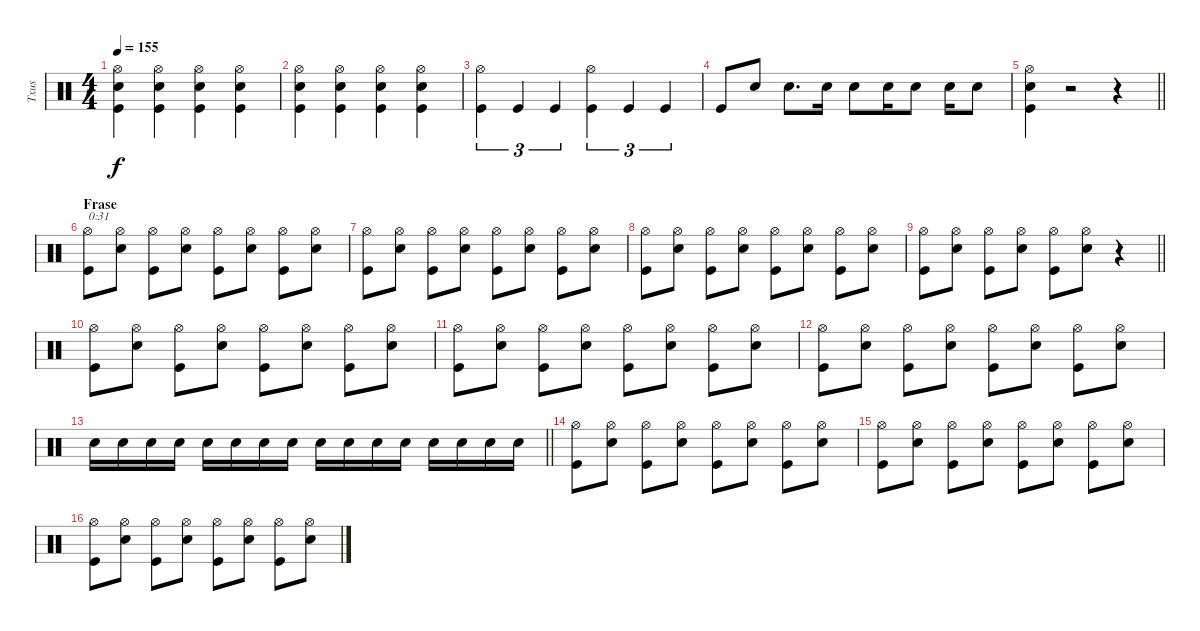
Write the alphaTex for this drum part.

\track ("Txus" "Txus") {instrument percussion}
\staff {score}
\articulation defaults
\ts (4 4)
\tempo 155
\clef neutral
\ks c
("Kick (hit)" "Snare (hit) 2" "Hi-Hat (open)").4{dy f} ("Kick (hit)" "Snare (hit) 2" "Hi-Hat (open)").4 ("Kick (hit)" "Snare (hit) 2" "Hi-Hat (open)").4 ("Kick (hit)" "Snare (hit) 2" "Hi-Hat (open)").4 |
("Kick (hit)" "Snare (hit) 2" "Hi-Hat (open)").4 ("Kick (hit)" "Snare (hit) 2" "Hi-Hat (open)").4 ("Kick (hit)" "Snare (hit) 2" "Hi-Hat (open)").4 ("Kick (hit)" "Snare (hit) 2" "Hi-Hat (open)").4 |
("Kick (hit)" "Hi-Hat (open)").4{tu (3 2)} "Kick (hit)".4{tu (3 2)} "Kick (hit)".4{tu (3 2)} ("Kick (hit)" "Hi-Hat (open)").4{tu (3 2)} "Kick (hit)".4{tu (3 2)} "Kick (hit)".4{tu (3 2)} |
"Kick (hit)".8 "Snare (hit) 2".8 "Snare (hit) 2".8{d} "Snare (hit) 2".16 "Snare (hit) 2".8 "Snare (hit) 2".16 "Snare (hit) 2".8 "Snare (hit) 2".16 "Snare (hit) 2".8 |
\barLineRight lightlight
("Kick (hit)" "Snare (hit) 2" "Hi-Hat (open)").4 r.2 r.4 |
\section ("" "Frase")
("Kick (hit)" "Hi-Hat (open)").8{txt "0:31"} ("Snare (hit) 2" "Hi-Hat (open)").8 ("Kick (hit)" "Hi-Hat (open)").8 ("Snare (hit) 2" "Hi-Hat (open)").8 ("Kick (hit)" "Hi-Hat (open)").8 ("Snare (hit) 2" "Hi-Hat (open)").8 ("Kick (hit)" "Hi-Hat (open)").8 ("Snare (hit) 2" "Hi-Hat (open)").8 |
("Kick (hit)" "Hi-Hat (open)").8 ("Snare (hit) 2" "Hi-Hat (open)").8 ("Kick (hit)" "Hi-Hat (open)").8 ("Snare (hit) 2" "Hi-Hat (open)").8 ("Kick (hit)" "Hi-Hat (open)").8 ("Snare (hit) 2" "Hi-Hat (open)").8 ("Kick (hit)" "Hi-Hat (open)").8 ("Snare (hit) 2" "Hi-Hat (open)").8 |
("Kick (hit)" "Hi-Hat (open)").8 ("Snare (hit) 2" "Hi-Hat (open)").8 ("Kick (hit)" "Hi-Hat (open)").8 ("Snare (hit) 2" "Hi-Hat (open)").8 ("Kick (hit)" "Hi-Hat (open)").8 ("Snare (hit) 2" "Hi-Hat (open)").8 ("Kick (hit)" "Hi-Hat (open)").8 ("Snare (hit) 2" "Hi-Hat (open)").8 |
\barLineRight lightlight
("Kick (hit)" "Hi-Hat (open)").8 ("Snare (hit) 2" "Hi-Hat (open)").8 ("Kick (hit)" "Hi-Hat (open)").8 ("Snare (hit) 2" "Hi-Hat (open)").8 ("Kick (hit)" "Hi-Hat (open)").8 ("Snare (hit) 2" "Hi-Hat (open)").8 r.4 |
("Kick (hit)" "Hi-Hat (open)").8 ("Snare (hit) 2" "Hi-Hat (open)").8 ("Kick (hit)" "Hi-Hat (open)").8 ("Snare (hit) 2" "Hi-Hat (open)").8 ("Kick (hit)" "Hi-Hat (open)").8 ("Snare (hit) 2" "Hi-Hat (open)").8 ("Kick (hit)" "Hi-Hat (open)").8 ("Snare (hit) 2" "Hi-Hat (open)").8 |
("Kick (hit)" "Hi-Hat (open)").8 ("Snare (hit) 2" "Hi-Hat (open)").8 ("Kick (hit)" "Hi-Hat (open)").8 ("Snare (hit) 2" "Hi-Hat (open)").8 ("Kick (hit)" "Hi-Hat (open)").8 ("Snare (hit) 2" "Hi-Hat (open)").8 ("Kick (hit)" "Hi-Hat (open)").8 ("Snare (hit) 2" "Hi-Hat (open)").8 |
("Kick (hit)" "Hi-Hat (open)").8 ("Snare (hit) 2" "Hi-Hat (open)").8 ("Kick (hit)" "Hi-Hat (open)").8 ("Snare (hit) 2" "Hi-Hat (open)").8 ("Kick (hit)" "Hi-Hat (open)").8 ("Snare (hit) 2" "Hi-Hat (open)").8 ("Kick (hit)" "Hi-Hat (open)").8 ("Snare (hit) 2" "Hi-Hat (open)").8 |
\barLineRight lightlight "Snare (hit) 2".16 "Snare (hit) 2".16 "Snare (hit) 2".16 "Snare (hit) 2".16 "Snare (hit) 2".16 "Snare (hit) 2".16 "Snare (hit) 2".16 "Snare (hit) 2".16 "Snare (hit) 2".16 "Snare (hit) 2".16 "Snare (hit) 2".16 "Snare (hit) 2".16 "Snare (hit) 2".16 "Snare (hit) 2".16 "Snare (hit) 2".16 "Snare (hit) 2".16
|
("Kick (hit)" "Hi-Hat (open)").8 ("Snare (hit) 2" "Hi-Hat (open)").8 ("Kick (hit)" "Hi-Hat (open)").8 ("Snare (hit) 2" "Hi-Hat (open)").8 ("Kick (hit)" "Hi-Hat (open)").8 ("Snare (hit) 2" "Hi-Hat (open)").8 ("Kick (hit)" "Hi-Hat (open)").8 ("Snare (hit) 2" "Hi-Hat (open)").8 |
("Kick (hit)" "Hi-Hat (open)").8 ("Snare (hit) 2" "Hi-Hat (open)").8 ("Kick (hit)" "Hi-Hat (open)").8 ("Snare (hit) 2" "Hi-Hat (open)").8 ("Kick (hit)" "Hi-Hat (open)").8 ("Snare (hit) 2" "Hi-Hat (open)").8 ("Kick (hit)" "Hi-Hat (open)").8 ("Snare (hit) 2" "Hi-Hat (open)").8 |
("Kick (hit)" "Hi-Hat (open)").8 ("Snare (hit) 2" "Hi-Hat (open)").8 ("Kick (hit)" "Hi-Hat (open)").8 ("Snare (hit) 2" "Hi-Hat (open)").8 ("Kick (hit)" "Hi-Hat (open)").8 ("Snare (hit) 2" "Hi-Hat (open)").8 ("Kick (hit)" "Hi-Hat (open)").8 ("Snare (hit) 2" "Hi-Hat (open)").8
